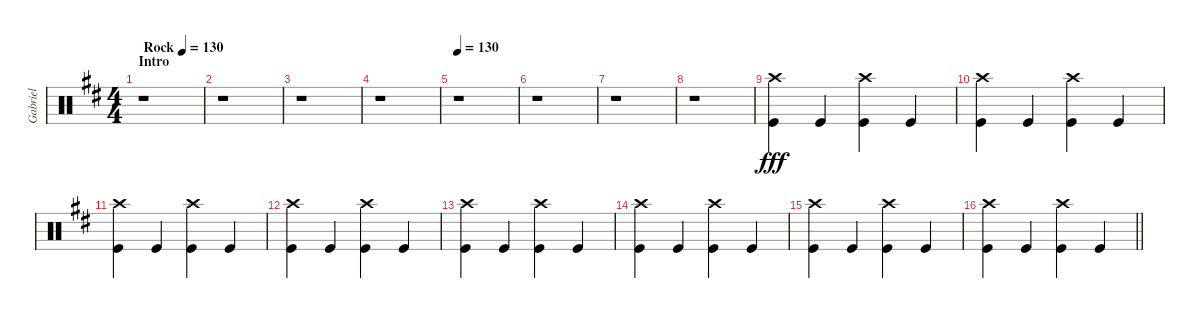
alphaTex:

\track ("Gabriel" "Gabriel") {instrument percussion}
\staff {score}
\articulation defaults
\ts (4 4)
\section ("" "Intro")
\tempo (130 "Rock")
\tempo 80
\tempo (130 "Rock")
\clef neutral
\ks d
r.1{dy fff} |
r.1 |
r.1 |
r.1 |
\tempo 130
r.1 |
r.1 |
r.1 |
r.1 |
("Crash high (hit)" "Kick (hit)").4 "Kick (hit)".4 ("Crash high (hit)" "Kick (hit)").4 "Kick (hit)".4 |
("Crash high (hit)" "Kick (hit)").4 "Kick (hit)".4 ("Crash high (hit)" "Kick (hit)").4 "Kick (hit)".4 |
("Crash high (hit)" "Kick (hit)").4 "Kick (hit)".4 ("Crash high (hit)" "Kick (hit)").4 "Kick (hit)".4 |
("Crash high (hit)" "Kick (hit)").4 "Kick (hit)".4 ("Crash high (hit)" "Kick (hit)").4 "Kick (hit)".4 |
("Crash high (hit)" "Kick (hit)").4 "Kick (hit)".4 ("Crash high (hit)" "Kick (hit)").4 "Kick (hit)".4 |
("Crash high (hit)" "Kick (hit)").4 "Kick (hit)".4 ("Crash high (hit)" "Kick (hit)").4 "Kick (hit)".4 |
("Crash high (hit)" "Kick (hit)").4 "Kick (hit)".4 ("Crash high (hit)" "Kick (hit)").4 "Kick (hit)".4 |
\barLineRight lightlight
("Crash high (hit)" "Kick (hit)").4 "Kick (hit)".4 ("Crash high (hit)" "Kick (hit)").4 "Kick (hit)".4
